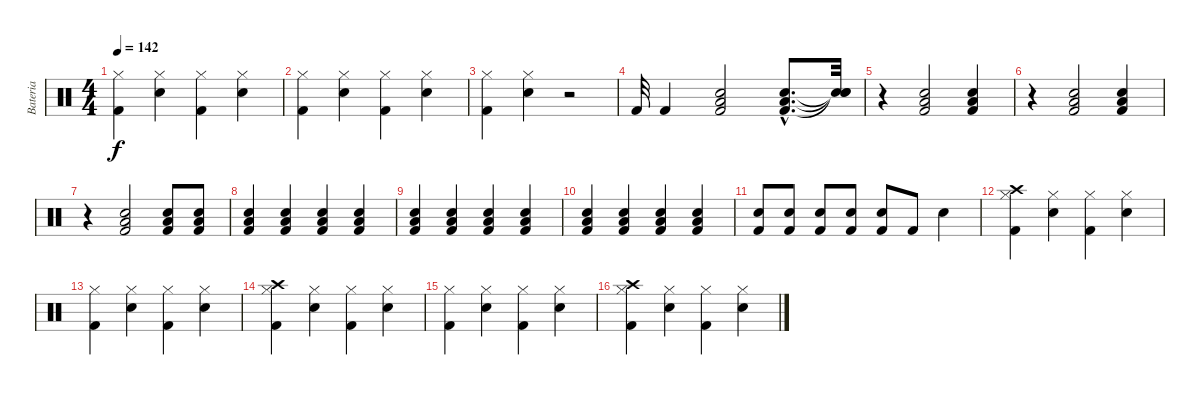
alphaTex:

\track ("Bateria" "Bateria") {instrument percussion}
\staff {score}
\articulation defaults
\ts (4 4)
\tempo 142
\clef neutral
\ks c
("Hi-Hat (closed)" "Kick (hit) 2").4{dy f} ("Hi-Hat (closed)" "Electric Snare (hit)").4 ("Hi-Hat (closed)" "Kick (hit) 2").4 ("Hi-Hat (closed)" "Electric Snare (hit)").4 |
("Hi-Hat (closed)" "Kick (hit) 2").4 ("Hi-Hat (closed)" "Electric Snare (hit)").4 ("Hi-Hat (closed)" "Kick (hit) 2").4 ("Hi-Hat (closed)" "Electric Snare (hit)").4 |
("Hi-Hat (closed)" "Kick (hit) 2").4 ("Hi-Hat (closed)" "Electric Snare (hit)").4 r.2 |
"Kick (hit) 2".32 "Kick (hit) 2".4 ("Electric Snare (hit)" "Low Floor Tom (hit)" "Kick (hit) 2").2 ("Electric Snare (hit)"{hac} "Low Floor Tom (hit)"{hac} "Kick (hit) 2"{hac}).8{d} ("Snare (hit)"{t} "Snare (hit)"{t} "Snare (hit)"{t}).32 |
r.4 ("Electric Snare (hit)" "Low Floor Tom (hit)" "Kick (hit) 2").2 ("Electric Snare (hit)" "Low Floor Tom (hit)" "Kick (hit) 2").4 |
r.4 ("Electric Snare (hit)" "Low Floor Tom (hit)" "Kick (hit) 2").2 ("Electric Snare (hit)" "Low Floor Tom (hit)" "Kick (hit) 2").4 |
r.4 ("Electric Snare (hit)" "Low Floor Tom (hit)" "Kick (hit) 2").2 ("Electric Snare (hit)" "Low Floor Tom (hit)" "Kick (hit) 2").8 ("Electric Snare (hit)" "Low Floor Tom (hit)" "Kick (hit) 2").8 |
("Electric Snare (hit)" "Low Floor Tom (hit)" "Kick (hit) 2").4 ("Electric Snare (hit)" "Low Floor Tom (hit)" "Kick (hit) 2").4 ("Electric Snare (hit)" "Low Floor Tom (hit)" "Kick (hit) 2").4 ("Electric Snare (hit)" "Low Floor Tom (hit)" "Kick (hit) 2").4 |
("Electric Snare (hit)" "Low Floor Tom (hit)" "Kick (hit) 2").4 ("Electric Snare (hit)" "Low Floor Tom (hit)" "Kick (hit) 2").4 ("Electric Snare (hit)" "Low Floor Tom (hit)" "Kick (hit) 2").4 ("Electric Snare (hit)" "Low Floor Tom (hit)" "Kick (hit) 2").4 |
("Electric Snare (hit)" "Low Floor Tom (hit)" "Kick (hit) 2").4 ("Electric Snare (hit)" "Low Floor Tom (hit)" "Kick (hit) 2").4 ("Electric Snare (hit)" "Low Floor Tom (hit)" "Kick (hit) 2").4 ("Electric Snare (hit)" "Low Floor Tom (hit)" "Kick (hit) 2").4 |
("Electric Snare (hit)" "Kick (hit) 2").8 ("Electric Snare (hit)" "Kick (hit) 2").8 ("Electric Snare (hit)" "Kick (hit) 2").8 ("Electric Snare (hit)" "Kick (hit) 2").8 ("Electric Snare (hit)" "Kick (hit) 2").8 "Kick (hit) 2".8 "Electric Snare (hit)".4 |
("Crash high (hit)" "Hi-Hat (closed)" "Kick (hit) 2").4 ("Hi-Hat (closed)" "Electric Snare (hit)").4 ("Hi-Hat (closed)" "Kick (hit) 2").4 ("Hi-Hat (closed)" "Electric Snare (hit)").4 |
("Hi-Hat (closed)" "Kick (hit) 2").4 ("Hi-Hat (closed)" "Electric Snare (hit)").4 ("Hi-Hat (closed)" "Kick (hit) 2").4 ("Hi-Hat (closed)" "Electric Snare (hit)").4 |
("Crash high (hit)" "Hi-Hat (closed)" "Kick (hit) 2").4 ("Hi-Hat (closed)" "Electric Snare (hit)").4 ("Hi-Hat (closed)" "Kick (hit) 2").4 ("Hi-Hat (closed)" "Electric Snare (hit)").4 |
("Hi-Hat (closed)" "Kick (hit) 2").4 ("Hi-Hat (closed)" "Electric Snare (hit)").4 ("Hi-Hat (closed)" "Kick (hit) 2").4 ("Hi-Hat (closed)" "Electric Snare (hit)").4 |
("Crash high (hit)" "Hi-Hat (closed)" "Kick (hit) 2").4 ("Hi-Hat (closed)" "Electric Snare (hit)").4 ("Hi-Hat (closed)" "Kick (hit) 2").4 ("Hi-Hat (closed)" "Electric Snare (hit)").4
